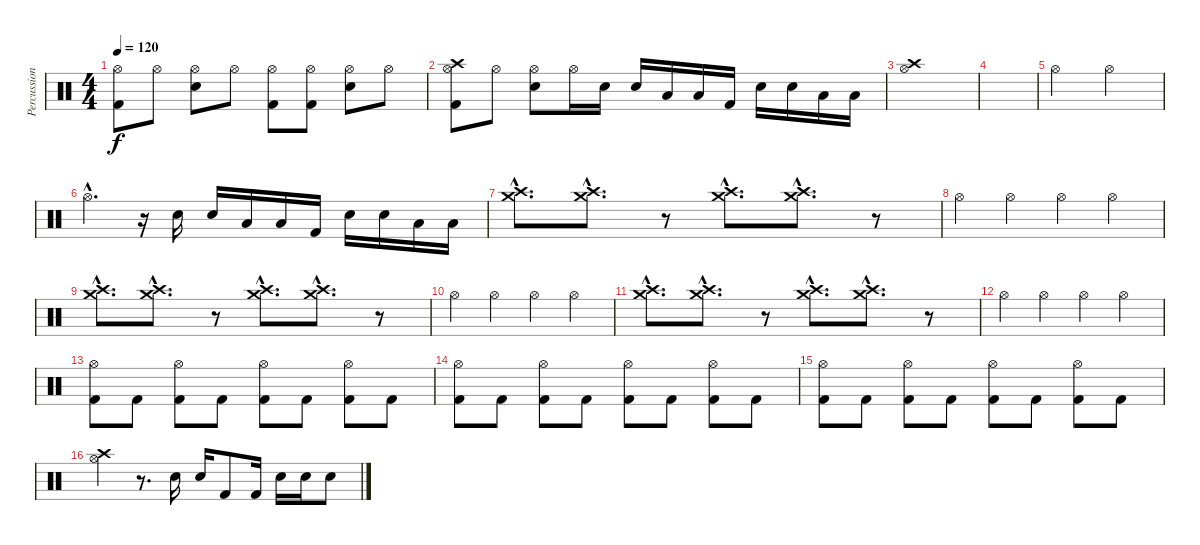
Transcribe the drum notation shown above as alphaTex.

\track ("Percussion" "Percussion") {instrument percussion}
\staff {score}
\articulation defaults
\ts (4 4)
\tempo 120
\clef neutral
\ks c
("Hi-Hat (open)" "Kick (hit) 2").8{dy f} "Hi-Hat (open)".8 ("Hi-Hat (open)" "Snare (hit) 2").8 "Hi-Hat (open)".8 ("Hi-Hat (open)" "Kick (hit) 2").8 ("Hi-Hat (open)" "Kick (hit) 2").8 ("Hi-Hat (open)" "Snare (hit) 2").8 "Hi-Hat (open)".8 |
("Hi-Hat (open)" "Crash high (hit)" "Kick (hit) 2").8 "Hi-Hat (open)".8 ("Hi-Hat (open)" "Snare (hit) 2").8 "Hi-Hat (open)".16 "Snare (hit) 2".16 "Snare (hit) 2".16 "Low Floor Tom (hit)".16 "Low Floor Tom (hit)".16 "Kick (hit) 2".16 "Snare (hit) 2".16 "Snare (hit) 2".16 "Low Floor Tom (hit)".16 "Low Floor Tom (hit)".16 |
("Hi-Hat (open)" "Crash high (hit)").1 |
|
"Hi-Hat (open)".2 "Hi-Hat (open)".2 |
"Hi-Hat (open)"{hac}.4{d} r.16 "Snare (hit) 2".16 "Snare (hit) 2".16 "Low Floor Tom (hit)".16 "Low Floor Tom (hit)".16 "Kick (hit) 2".16 "Snare (hit) 2".16 "Snare (hit) 2".16 "Low Floor Tom (hit)".16 "Low Floor Tom (hit)".16 |
("Crash medium (hit)"{hac} "Crash high (hit)"{hac}).8{d} ("Crash medium (hit)"{hac} "Crash high (hit)"{hac}).8{d} r.8 ("Crash medium (hit)"{hac} "Crash high (hit)"{hac}).8{d} ("Crash medium (hit)"{hac} "Crash high (hit)"{hac}).8{d} r.8 |
"Hi-Hat (open)".4 "Hi-Hat (open)".4 "Hi-Hat (open)".4 "Hi-Hat (open)".4 |
("Crash medium (hit)"{hac} "Crash high (hit)"{hac}).8{d} ("Crash medium (hit)"{hac} "Crash high (hit)"{hac}).8{d} r.8 ("Crash medium (hit)"{hac} "Crash high (hit)"{hac}).8{d} ("Crash medium (hit)"{hac} "Crash high (hit)"{hac}).8{d} r.8 |
"Hi-Hat (open)".4 "Hi-Hat (open)".4 "Hi-Hat (open)".4 "Hi-Hat (open)".4 |
("Crash medium (hit)"{hac} "Crash high (hit)"{hac}).8{d} ("Crash medium (hit)"{hac} "Crash high (hit)"{hac}).8{d} r.8 ("Crash medium (hit)"{hac} "Crash high (hit)"{hac}).8{d} ("Crash medium (hit)"{hac} "Crash high (hit)"{hac}).8{d} r.8 |
"Hi-Hat (open)".4 "Hi-Hat (open)".4 "Hi-Hat (open)".4 "Hi-Hat (open)".4 |
("Hi-Hat (open)" "Kick (hit) 2").8 "Kick (hit) 2".8 ("Hi-Hat (open)" "Kick (hit) 2").8 "Kick (hit) 2".8 ("Hi-Hat (open)" "Kick (hit) 2").8 "Kick (hit) 2".8 ("Hi-Hat (open)" "Kick (hit) 2").8 "Kick (hit) 2".8 |
("Hi-Hat (open)" "Kick (hit) 2").8 "Kick (hit) 2".8 ("Hi-Hat (open)" "Kick (hit) 2").8 "Kick (hit) 2".8 ("Hi-Hat (open)" "Kick (hit) 2").8 "Kick (hit) 2".8 ("Hi-Hat (open)" "Kick (hit) 2").8 "Kick (hit) 2".8 |
("Hi-Hat (open)" "Kick (hit) 2").8 "Kick (hit) 2".8 ("Hi-Hat (open)" "Kick (hit) 2").8 "Kick (hit) 2".8 ("Hi-Hat (open)" "Kick (hit) 2").8 "Kick (hit) 2".8 ("Hi-Hat (open)" "Kick (hit) 2").8 "Kick (hit) 2".8 |
("Hi-Hat (open)" "Crash high (hit)").4 r.8{d} "Snare (hit) 2".16 "Snare (hit) 2".16 "Kick (hit) 2".8 "Kick (hit) 2".16 "Snare (hit) 2".16 "Snare (hit) 2".16 "Snare (hit) 2".8
